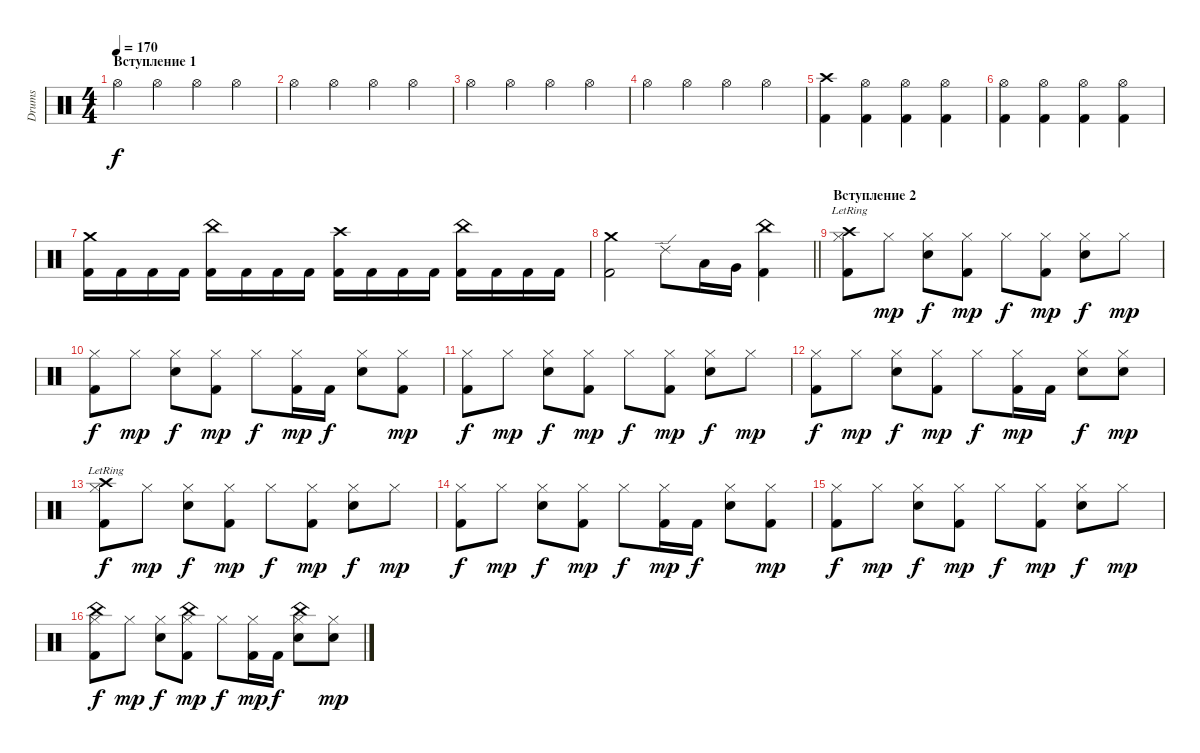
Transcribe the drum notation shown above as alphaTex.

\track ("Drums" "Drums") {instrument percussion}
\staff {score}
\articulation defaults
\ts (4 4)
\section ("" "Вступление 1")
\tempo 170
\clef neutral
\ks c "Hi-Hat (open)".4{dy f} "Hi-Hat (open)".4 "Hi-Hat (open)".4 "Hi-Hat (open)".4
|
"Hi-Hat (open)".4 "Hi-Hat (open)".4 "Hi-Hat (open)".4 "Hi-Hat (open)".4 |
"Hi-Hat (open)".4 "Hi-Hat (open)".4 "Hi-Hat (open)".4 "Hi-Hat (open)".4 |
"Hi-Hat (open)".4 "Hi-Hat (open)".4 "Hi-Hat (open)".4 "Hi-Hat (open)".4 |
("Crash high (hit)" "Kick (hit) 2").4 ("Hi-Hat (open)" "Kick (hit) 2").4 ("Hi-Hat (open)" "Kick (hit) 2").4 ("Hi-Hat (open)" "Kick (hit) 2").4 |
("Hi-Hat (open)" "Kick (hit) 2").4 ("Hi-Hat (open)" "Kick (hit) 2").4 ("Hi-Hat (open)" "Kick (hit) 2").4 ("Hi-Hat (open)" "Kick (hit) 2").4 |
("Crash medium (hit)" "Kick (hit) 2").16 "Kick (hit) 2".16 "Kick (hit) 2".16 "Kick (hit) 2".16 ("China (hit)" "Kick (hit) 2").16 "Kick (hit) 2".16 "Kick (hit) 2".16 "Kick (hit) 2".16 ("Crash high (hit)" "Kick (hit) 2").16 "Kick (hit) 2".16 "Kick (hit) 2".16 "Kick (hit) 2".16 ("China (hit)" "Kick (hit) 2").16 "Kick (hit) 2".16 "Kick (hit) 2".16 "Kick (hit) 2".16 |
\barLineRight lightlight
("Crash medium (hit)" "Kick (hit) 2").2 "Ride (edge) 2".8 "Low Tom (hit)".16 "Very Low Tom (hit)".16 ("China (hit)" "Kick (hit) 2").4 |
\section ("" "Вступление 2")
("Crash high (hit)"{lr} "Kick (hit) 2" "Hi-Hat (closed)").8 "Hi-Hat (closed)".8{dy mp} ("Electric Snare (hit)" "Hi-Hat (closed)").8{dy f} ("Kick (hit) 2" "Hi-Hat (closed)").8{dy mp} "Hi-Hat (closed)".8{dy f} ("Kick (hit) 2" "Hi-Hat (closed)").8{dy mp} ("Electric Snare (hit)" "Hi-Hat (closed)").8{dy f} "Hi-Hat (closed)".8{dy mp} |
("Kick (hit) 2" "Hi-Hat (closed)").8{dy f} "Hi-Hat (closed)".8{dy mp} ("Electric Snare (hit)" "Hi-Hat (closed)").8{dy f} ("Kick (hit) 2" "Hi-Hat (closed)").8{dy mp} "Hi-Hat (closed)".8{dy f} ("Kick (hit) 2" "Hi-Hat (closed)").16{dy mp} "Kick (hit) 2".16{dy f} ("Electric Snare (hit)" "Hi-Hat (closed)").8 ("Kick (hit) 2" "Hi-Hat (closed)").8{dy mp} |
("Kick (hit) 2" "Hi-Hat (closed)").8{dy f} "Hi-Hat (closed)".8{dy mp} ("Electric Snare (hit)" "Hi-Hat (closed)").8{dy f} ("Kick (hit) 2" "Hi-Hat (closed)").8{dy mp} "Hi-Hat (closed)".8{dy f} ("Kick (hit) 2" "Hi-Hat (closed)").8{dy mp} ("Electric Snare (hit)" "Hi-Hat (closed)").8{dy f} "Hi-Hat (closed)".8{dy mp} |
("Kick (hit) 2" "Hi-Hat (closed)").8{dy f} "Hi-Hat (closed)".8{dy mp} ("Electric Snare (hit)" "Hi-Hat (closed)").8{dy f} ("Kick (hit) 2" "Hi-Hat (closed)").8{dy mp} "Hi-Hat (closed)".8{dy f} ("Kick (hit) 2" "Hi-Hat (closed)").16{dy mp} "Kick (hit) 2".16 ("Electric Snare (hit)" "Hi-Hat (closed)").8{dy f} ("Electric Snare (hit)" "Hi-Hat (closed)").8{dy mp} |
("Crash high (hit)"{lr} "Kick (hit) 2" "Hi-Hat (closed)").8{dy f} "Hi-Hat (closed)".8{dy mp} ("Electric Snare (hit)" "Hi-Hat (closed)").8{dy f} ("Kick (hit) 2" "Hi-Hat (closed)").8{dy mp} "Hi-Hat (closed)".8{dy f} ("Kick (hit) 2" "Hi-Hat (closed)").8{dy mp} ("Electric Snare (hit)" "Hi-Hat (closed)").8{dy f} "Hi-Hat (closed)".8{dy mp} |
("Kick (hit) 2" "Hi-Hat (closed)").8{dy f} "Hi-Hat (closed)".8{dy mp} ("Electric Snare (hit)" "Hi-Hat (closed)").8{dy f} ("Kick (hit) 2" "Hi-Hat (closed)").8{dy mp} "Hi-Hat (closed)".8{dy f} ("Kick (hit) 2" "Hi-Hat (closed)").16{dy mp} "Kick (hit) 2".16{dy f} ("Electric Snare (hit)" "Hi-Hat (closed)").8 ("Kick (hit) 2" "Hi-Hat (closed)").8{dy mp} |
("Kick (hit) 2" "Hi-Hat (closed)").8{dy f} "Hi-Hat (closed)".8{dy mp} ("Electric Snare (hit)" "Hi-Hat (closed)").8{dy f} ("Kick (hit) 2" "Hi-Hat (closed)").8{dy mp} "Hi-Hat (closed)".8{dy f} ("Kick (hit) 2" "Hi-Hat (closed)").8{dy mp} ("Electric Snare (hit)" "Hi-Hat (closed)").8{dy f} "Hi-Hat (closed)".8{dy mp} |
("China (hit)" "Kick (hit) 2" "Hi-Hat (closed)").8{dy f} "Hi-Hat (closed)".8{dy mp} ("Electric Snare (hit)" "Hi-Hat (closed)").8{dy f} ("China (hit)" "Kick (hit) 2" "Hi-Hat (closed)").8{dy mp} "Hi-Hat (closed)".8{dy f} ("Kick (hit) 2" "Hi-Hat (closed)").16{dy mp} "Kick (hit) 2".16{dy f} ("China (hit)" "Electric Snare (hit)" "Hi-Hat (closed)").8 ("Electric Snare (hit)" "Hi-Hat (closed)").8{dy mp}
